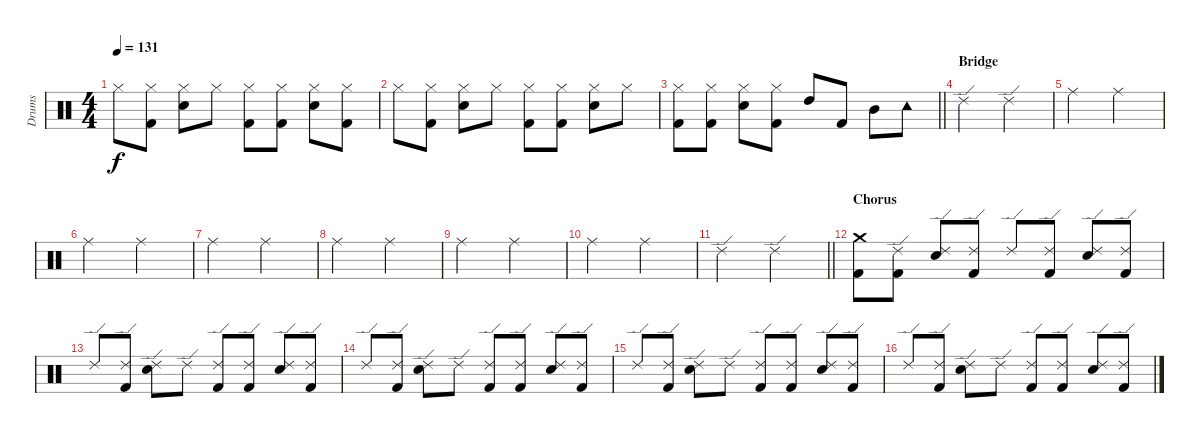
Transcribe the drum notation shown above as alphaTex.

\track ("Drums" "Drums") {instrument percussion}
\staff {score}
\articulation defaults
\ts (4 4)
\tempo 131
\clef neutral
\ks c "Hi-Hat (closed)".8{dy f}
("Hi-Hat (closed)" "Kick (hit) 2").8 ("Hi-Hat (closed)" "Snare (hit) 2").8 "Hi-Hat (closed)".8 ("Hi-Hat (closed)" "Kick (hit) 2").8 ("Hi-Hat (closed)" "Kick (hit) 2").8 ("Hi-Hat (closed)" "Snare (hit) 2").8 ("Hi-Hat (closed)" "Kick (hit) 2").8 |
"Hi-Hat (closed)".8 ("Hi-Hat (closed)" "Kick (hit) 2").8 ("Hi-Hat (closed)" "Snare (hit) 2").8 "Hi-Hat (closed)".8 ("Hi-Hat (closed)" "Kick (hit) 2").8 ("Hi-Hat (closed)" "Kick (hit) 2").8 ("Hi-Hat (closed)" "Snare (hit) 2").8 "Hi-Hat (closed)".8 |
\barLineRight lightlight
("Hi-Hat (closed)" "Kick (hit) 2").8 ("Hi-Hat (closed)" "Kick (hit) 2").8 ("Hi-Hat (closed)" "Snare (hit) 2").8 ("Hi-Hat (closed)" "Kick (hit) 2").8 "High Tom (hit)".8 "Kick (hit) 2".8 "Mid Tom (hit)".8 "Tambourine (hit)".8 |
\section ("" "Bridge")
"Ride (edge) 2".2 "Ride (edge) 2".2 |
"Ride (middle)".2 "Ride (middle)".2 |
"Ride (middle)".2 "Ride (middle)".2 |
"Ride (middle)".2 "Ride (middle)".2 |
"Ride (middle)".2 "Ride (middle)".2 |
"Ride (middle)".2 "Ride (middle)".2 |
"Ride (middle)".2 "Ride (middle)".2 |
\barLineRight lightlight "Ride (edge) 2".2 "Ride (edge) 2".2
|
\section ("" "Chorus")
("Crash medium (hit)" "Kick (hit) 2").8 ("Ride (edge) 2" "Kick (hit) 2").8 ("Ride (edge) 2" "Snare (hit) 2").8 ("Ride (edge) 2" "Kick (hit) 2").8 "Ride (edge) 2".8 ("Ride (edge) 2" "Kick (hit) 2").8 ("Ride (edge) 2" "Snare (hit) 2").8 ("Ride (edge) 2" "Kick (hit) 2").8 |
"Ride (edge) 2".8 ("Ride (edge) 2" "Kick (hit) 2").8 ("Ride (edge) 2" "Snare (hit) 2").8 "Ride (edge) 2".8 ("Ride (edge) 2" "Kick (hit) 2").8 ("Ride (edge) 2" "Kick (hit) 2").8 ("Ride (edge) 2" "Snare (hit) 2").8 ("Ride (edge) 2" "Kick (hit) 2").8 |
"Ride (edge) 2".8 ("Ride (edge) 2" "Kick (hit) 2").8 ("Ride (edge) 2" "Snare (hit) 2").8 "Ride (edge) 2".8 ("Ride (edge) 2" "Kick (hit) 2").8 ("Ride (edge) 2" "Kick (hit) 2").8 ("Ride (edge) 2" "Snare (hit) 2").8 ("Ride (edge) 2" "Kick (hit) 2").8 |
"Ride (edge) 2".8 ("Ride (edge) 2" "Kick (hit) 2").8 ("Ride (edge) 2" "Snare (hit) 2").8 "Ride (edge) 2".8 ("Ride (edge) 2" "Kick (hit) 2").8 ("Ride (edge) 2" "Kick (hit) 2").8 ("Ride (edge) 2" "Snare (hit) 2").8 ("Ride (edge) 2" "Kick (hit) 2").8 |
"Ride (edge) 2".8 ("Ride (edge) 2" "Kick (hit) 2").8 ("Ride (edge) 2" "Snare (hit) 2").8 "Ride (edge) 2".8 ("Ride (edge) 2" "Kick (hit) 2").8 ("Ride (edge) 2" "Kick (hit) 2").8 ("Ride (edge) 2" "Snare (hit) 2").8 ("Ride (edge) 2" "Kick (hit) 2").8
